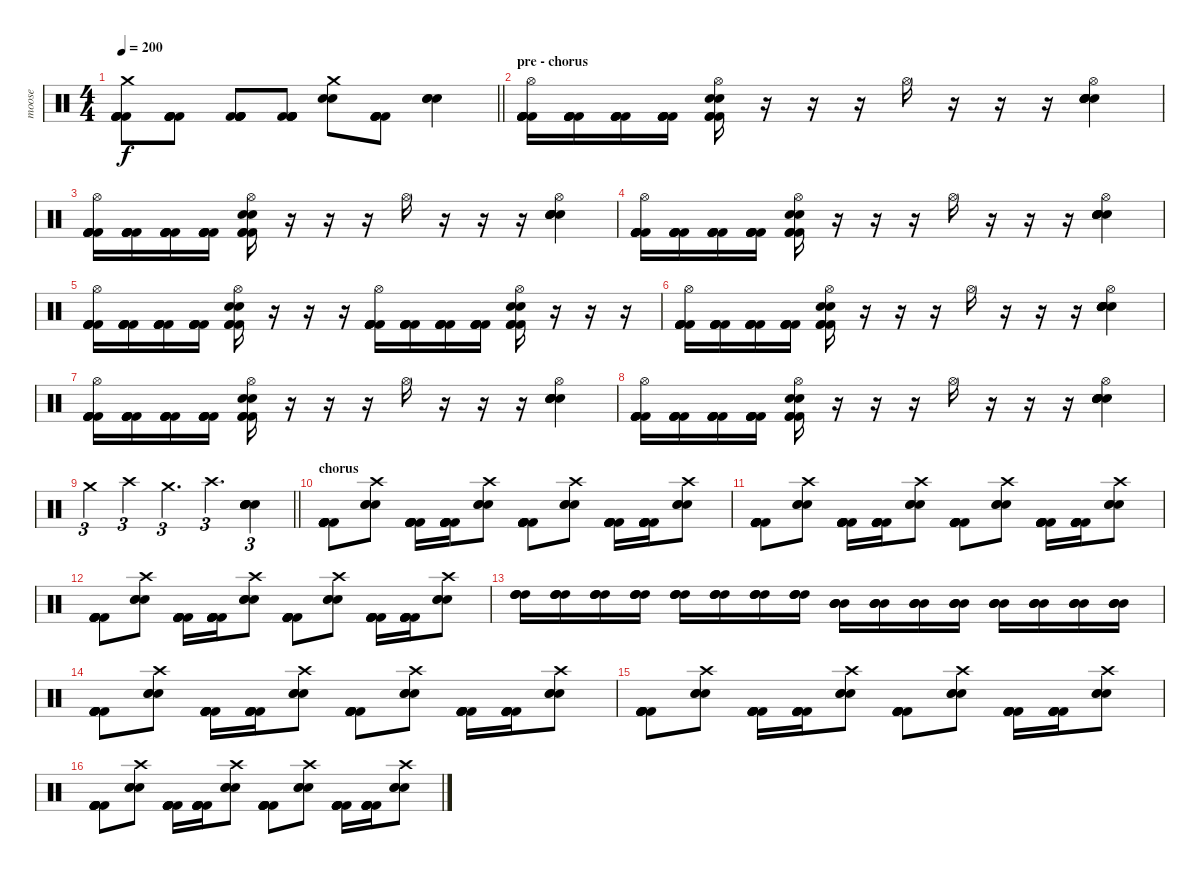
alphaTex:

\track ("moose" "moose") {instrument percussion}
\staff {score}
\articulation defaults
\ts (4 4)
\tempo 200
\clef neutral
\barLineRight lightlight
\ks c
("Kick (hit) 2" "Kick (hit) 2" "Kick (hit) 2" "Kick (hit) 2" "Kick (hit) 2" "Crash medium (hit)").8{dy f} ("Kick (hit) 2" "Kick (hit) 2" "Kick (hit) 2" "Kick (hit) 2" "Kick (hit) 2").8 ("Kick (hit) 2" "Kick (hit) 2" "Kick (hit) 2" "Kick (hit) 2" "Kick (hit) 2").8 ("Kick (hit) 2" "Kick (hit) 2" "Kick (hit) 2" "Kick (hit) 2" "Kick (hit) 2").8 ("Electric Snare (hit)" "Electric Snare (hit)" "Crash medium (hit)").8 ("Kick (hit) 2" "Kick (hit) 2" "Kick (hit) 2" "Kick (hit) 2" "Kick (hit) 2").8 ("Electric Snare (hit)" "Electric Snare (hit)" "Electric Snare (hit)").4 |
\section ("" "pre - chorus")
("Kick (hit) 2" "Kick (hit) 2" "Kick (hit) 2" "Kick (hit) 2" "Kick (hit) 2" "Hi-Hat (open)").16 ("Kick (hit) 2" "Kick (hit) 2" "Kick (hit) 2" "Kick (hit) 2" "Kick (hit) 2").16 ("Kick (hit) 2" "Kick (hit) 2" "Kick (hit) 2" "Kick (hit) 2" "Kick (hit) 2").16 ("Kick (hit) 2" "Kick (hit) 2" "Kick (hit) 2" "Kick (hit) 2" "Kick (hit) 2").16 ("Kick (hit) 2" "Kick (hit) 2" "Kick (hit) 2" "Electric Snare (hit)" "Electric Snare (hit)" "Hi-Hat (open)").16 r.16 r.16 r.16 "Hi-Hat (open)".16 r.16 r.16 r.16 ("Electric Snare (hit)" "Electric Snare (hit)" "Electric Snare (hit)" "Electric Snare (hit)" "Electric Snare (hit)" "Hi-Hat (open)").4 |
("Kick (hit) 2" "Kick (hit) 2" "Kick (hit) 2" "Kick (hit) 2" "Kick (hit) 2" "Hi-Hat (open)").16 ("Kick (hit) 2" "Kick (hit) 2" "Kick (hit) 2" "Kick (hit) 2" "Kick (hit) 2").16 ("Kick (hit) 2" "Kick (hit) 2" "Kick (hit) 2" "Kick (hit) 2" "Kick (hit) 2").16 ("Kick (hit) 2" "Kick (hit) 2" "Kick (hit) 2" "Kick (hit) 2" "Kick (hit) 2").16 ("Kick (hit) 2" "Kick (hit) 2" "Kick (hit) 2" "Electric Snare (hit)" "Electric Snare (hit)" "Hi-Hat (open)").16 r.16 r.16 r.16 "Hi-Hat (open)".16 r.16 r.16 r.16 ("Electric Snare (hit)" "Electric Snare (hit)" "Electric Snare (hit)" "Electric Snare (hit)" "Electric Snare (hit)" "Hi-Hat (open)").4 |
("Kick (hit) 2" "Kick (hit) 2" "Kick (hit) 2" "Kick (hit) 2" "Kick (hit) 2" "Hi-Hat (open)").16 ("Kick (hit) 2" "Kick (hit) 2" "Kick (hit) 2" "Kick (hit) 2" "Kick (hit) 2").16 ("Kick (hit) 2" "Kick (hit) 2" "Kick (hit) 2" "Kick (hit) 2" "Kick (hit) 2").16 ("Kick (hit) 2" "Kick (hit) 2" "Kick (hit) 2" "Kick (hit) 2" "Kick (hit) 2").16 ("Kick (hit) 2" "Kick (hit) 2" "Kick (hit) 2" "Electric Snare (hit)" "Electric Snare (hit)" "Hi-Hat (open)").16 r.16 r.16 r.16 "Hi-Hat (open)".16 r.16 r.16 r.16 ("Electric Snare (hit)" "Electric Snare (hit)" "Electric Snare (hit)" "Electric Snare (hit)" "Electric Snare (hit)" "Hi-Hat (open)").4 |
("Kick (hit) 2" "Kick (hit) 2" "Kick (hit) 2" "Kick (hit) 2" "Kick (hit) 2" "Hi-Hat (open)").16 ("Kick (hit) 2" "Kick (hit) 2" "Kick (hit) 2" "Kick (hit) 2" "Kick (hit) 2").16 ("Kick (hit) 2" "Kick (hit) 2" "Kick (hit) 2" "Kick (hit) 2" "Kick (hit) 2").16 ("Kick (hit) 2" "Kick (hit) 2" "Kick (hit) 2" "Kick (hit) 2" "Kick (hit) 2").16 ("Kick (hit) 2" "Kick (hit) 2" "Kick (hit) 2" "Electric Snare (hit)" "Electric Snare (hit)" "Hi-Hat (open)").16 r.16 r.16 r.16 ("Kick (hit) 2" "Kick (hit) 2" "Kick (hit) 2" "Kick (hit) 2" "Kick (hit) 2" "Hi-Hat (open)").16 ("Kick (hit) 2" "Kick (hit) 2" "Kick (hit) 2" "Kick (hit) 2" "Kick (hit) 2").16 ("Kick (hit) 2" "Kick (hit) 2" "Kick (hit) 2" "Kick (hit) 2" "Kick (hit) 2").16 ("Kick (hit) 2" "Kick (hit) 2" "Kick (hit) 2" "Kick (hit) 2" "Kick (hit) 2").16 ("Kick (hit) 2" "Kick (hit) 2" "Kick (hit) 2" "Electric Snare (hit)" "Electric Snare (hit)" "Hi-Hat (open)").16 r.16 r.16 r.16 |
("Kick (hit) 2" "Kick (hit) 2" "Kick (hit) 2" "Kick (hit) 2" "Kick (hit) 2" "Hi-Hat (open)").16 ("Kick (hit) 2" "Kick (hit) 2" "Kick (hit) 2" "Kick (hit) 2" "Kick (hit) 2").16 ("Kick (hit) 2" "Kick (hit) 2" "Kick (hit) 2" "Kick (hit) 2" "Kick (hit) 2").16 ("Kick (hit) 2" "Kick (hit) 2" "Kick (hit) 2" "Kick (hit) 2" "Kick (hit) 2").16 ("Kick (hit) 2" "Kick (hit) 2" "Kick (hit) 2" "Electric Snare (hit)" "Electric Snare (hit)" "Hi-Hat (open)").16 r.16 r.16 r.16 "Hi-Hat (open)".16 r.16 r.16 r.16 ("Electric Snare (hit)" "Electric Snare (hit)" "Electric Snare (hit)" "Electric Snare (hit)" "Electric Snare (hit)" "Hi-Hat (open)").4 |
("Kick (hit) 2" "Kick (hit) 2" "Kick (hit) 2" "Kick (hit) 2" "Kick (hit) 2" "Hi-Hat (open)").16 ("Kick (hit) 2" "Kick (hit) 2" "Kick (hit) 2" "Kick (hit) 2" "Kick (hit) 2").16 ("Kick (hit) 2" "Kick (hit) 2" "Kick (hit) 2" "Kick (hit) 2" "Kick (hit) 2").16 ("Kick (hit) 2" "Kick (hit) 2" "Kick (hit) 2" "Kick (hit) 2" "Kick (hit) 2").16 ("Kick (hit) 2" "Kick (hit) 2" "Kick (hit) 2" "Electric Snare (hit)" "Electric Snare (hit)" "Hi-Hat (open)").16 r.16 r.16 r.16 "Hi-Hat (open)".16 r.16 r.16 r.16 ("Electric Snare (hit)" "Electric Snare (hit)" "Electric Snare (hit)" "Electric Snare (hit)" "Electric Snare (hit)" "Hi-Hat (open)").4 |
("Kick (hit) 2" "Kick (hit) 2" "Kick (hit) 2" "Kick (hit) 2" "Kick (hit) 2" "Hi-Hat (open)").16 ("Kick (hit) 2" "Kick (hit) 2" "Kick (hit) 2" "Kick (hit) 2" "Kick (hit) 2").16 ("Kick (hit) 2" "Kick (hit) 2" "Kick (hit) 2" "Kick (hit) 2" "Kick (hit) 2").16 ("Kick (hit) 2" "Kick (hit) 2" "Kick (hit) 2" "Kick (hit) 2" "Kick (hit) 2").16 ("Kick (hit) 2" "Kick (hit) 2" "Kick (hit) 2" "Electric Snare (hit)" "Electric Snare (hit)" "Hi-Hat (open)").16 r.16 r.16 r.16 "Hi-Hat (open)".16 r.16 r.16 r.16 ("Electric Snare (hit)" "Electric Snare (hit)" "Electric Snare (hit)" "Electric Snare (hit)" "Electric Snare (hit)" "Hi-Hat (open)").4 |
\barLineRight lightlight "Crash medium (hit)".4{tu (3 2)} "Crash high (hit)".4{tu (3 2)} "Crash medium (hit)".4{d tu (3 2)} "Crash high (hit)".4{d tu (3 2)}
("Electric Snare (hit)" "Electric Snare (hit)" "Electric Snare (hit)" "Electric Snare (hit)" "Electric Snare (hit)").4{tu (3 2)} |
\section ("" "chorus")
("Kick (hit) 2" "Kick (hit) 2" "Kick (hit) 2" "Kick (hit) 2" "Kick (hit) 2" "Kick (hit) 2").8 ("Electric Snare (hit)" "Electric Snare (hit)" "Electric Snare (hit)" "Crash high (hit)").8 ("Kick (hit) 2" "Kick (hit) 2" "Kick (hit) 2" "Kick (hit) 2" "Kick (hit) 2" "Kick (hit) 2").16 ("Kick (hit) 2" "Kick (hit) 2" "Kick (hit) 2" "Kick (hit) 2" "Kick (hit) 2" "Kick (hit) 2").16 ("Electric Snare (hit)" "Electric Snare (hit)" "Electric Snare (hit)" "Crash high (hit)").8 ("Kick (hit) 2" "Kick (hit) 2" "Kick (hit) 2" "Kick (hit) 2" "Kick (hit) 2" "Kick (hit) 2").8 ("Electric Snare (hit)" "Electric Snare (hit)" "Electric Snare (hit)" "Crash high (hit)").8 ("Kick (hit) 2" "Kick (hit) 2" "Kick (hit) 2" "Kick (hit) 2" "Kick (hit) 2" "Kick (hit) 2").16 ("Kick (hit) 2" "Kick (hit) 2" "Kick (hit) 2" "Kick (hit) 2" "Kick (hit) 2" "Kick (hit) 2").16 ("Electric Snare (hit)" "Electric Snare (hit)" "Electric Snare (hit)" "Crash high (hit)").8 |
("Kick (hit) 2" "Kick (hit) 2" "Kick (hit) 2" "Kick (hit) 2" "Kick (hit) 2" "Kick (hit) 2").8 ("Electric Snare (hit)" "Electric Snare (hit)" "Electric Snare (hit)" "Crash high (hit)").8 ("Kick (hit) 2" "Kick (hit) 2" "Kick (hit) 2" "Kick (hit) 2" "Kick (hit) 2" "Kick (hit) 2").16 ("Kick (hit) 2" "Kick (hit) 2" "Kick (hit) 2" "Kick (hit) 2" "Kick (hit) 2" "Kick (hit) 2").16 ("Electric Snare (hit)" "Electric Snare (hit)" "Electric Snare (hit)" "Crash high (hit)").8 ("Kick (hit) 2" "Kick (hit) 2" "Kick (hit) 2" "Kick (hit) 2" "Kick (hit) 2" "Kick (hit) 2").8 ("Electric Snare (hit)" "Electric Snare (hit)" "Electric Snare (hit)" "Crash high (hit)").8 ("Kick (hit) 2" "Kick (hit) 2" "Kick (hit) 2" "Kick (hit) 2" "Kick (hit) 2" "Kick (hit) 2").16 ("Kick (hit) 2" "Kick (hit) 2" "Kick (hit) 2" "Kick (hit) 2" "Kick (hit) 2" "Kick (hit) 2").16 ("Electric Snare (hit)" "Electric Snare (hit)" "Electric Snare (hit)" "Crash high (hit)").8 |
("Kick (hit) 2" "Kick (hit) 2" "Kick (hit) 2" "Kick (hit) 2" "Kick (hit) 2" "Kick (hit) 2").8 ("Electric Snare (hit)" "Electric Snare (hit)" "Electric Snare (hit)" "Crash high (hit)").8 ("Kick (hit) 2" "Kick (hit) 2" "Kick (hit) 2" "Kick (hit) 2" "Kick (hit) 2" "Kick (hit) 2").16 ("Kick (hit) 2" "Kick (hit) 2" "Kick (hit) 2" "Kick (hit) 2" "Kick (hit) 2" "Kick (hit) 2").16 ("Electric Snare (hit)" "Electric Snare (hit)" "Electric Snare (hit)" "Crash high (hit)").8 ("Kick (hit) 2" "Kick (hit) 2" "Kick (hit) 2" "Kick (hit) 2" "Kick (hit) 2" "Kick (hit) 2").8 ("Electric Snare (hit)" "Electric Snare (hit)" "Electric Snare (hit)" "Crash high (hit)").8 ("Kick (hit) 2" "Kick (hit) 2" "Kick (hit) 2" "Kick (hit) 2" "Kick (hit) 2" "Kick (hit) 2").16 ("Kick (hit) 2" "Kick (hit) 2" "Kick (hit) 2" "Kick (hit) 2" "Kick (hit) 2" "Kick (hit) 2").16 ("Electric Snare (hit)" "Electric Snare (hit)" "Electric Snare (hit)" "Crash high (hit)").8 |
("High Tom (hit)" "High Tom (hit)" "High Tom (hit)" "High Tom (hit)").16 ("High Tom (hit)" "High Tom (hit)" "High Tom (hit)" "High Tom (hit)").16 ("High Tom (hit)" "High Tom (hit)" "High Tom (hit)" "High Tom (hit)").16 ("High Tom (hit)" "High Tom (hit)" "High Tom (hit)" "High Tom (hit)").16 ("High Tom (hit)" "High Tom (hit)" "High Tom (hit)" "High Tom (hit)").16 ("High Tom (hit)" "High Tom (hit)" "High Tom (hit)" "High Tom (hit)").16 ("High Tom (hit)" "High Tom (hit)" "High Tom (hit)" "High Tom (hit)").16 ("High Tom (hit)" "High Tom (hit)" "High Tom (hit)" "High Tom (hit)").16 ("Mid Tom (hit)" "Mid Tom (hit)" "Mid Tom (hit)" "Mid Tom (hit)").16 ("Mid Tom (hit)" "Mid Tom (hit)" "Mid Tom (hit)" "Mid Tom (hit)").16 ("Mid Tom (hit)" "Mid Tom (hit)" "Mid Tom (hit)" "Mid Tom (hit)").16 ("Mid Tom (hit)" "Mid Tom (hit)" "Mid Tom (hit)" "Mid Tom (hit)").16 ("Mid Tom (hit)" "Mid Tom (hit)" "Mid Tom (hit)" "Mid Tom (hit)").16 ("Mid Tom (hit)" "Mid Tom (hit)" "Mid Tom (hit)" "Mid Tom (hit)").16 ("Mid Tom (hit)" "Mid Tom (hit)" "Mid Tom (hit)" "Mid Tom (hit)").16 ("Mid Tom (hit)" "Mid Tom (hit)" "Mid Tom (hit)" "Mid Tom (hit)").16 |
("Kick (hit) 2" "Kick (hit) 2" "Kick (hit) 2" "Kick (hit) 2" "Kick (hit) 2" "Kick (hit) 2").8 ("Electric Snare (hit)" "Electric Snare (hit)" "Electric Snare (hit)" "Crash high (hit)").8 ("Kick (hit) 2" "Kick (hit) 2" "Kick (hit) 2" "Kick (hit) 2" "Kick (hit) 2" "Kick (hit) 2").16 ("Kick (hit) 2" "Kick (hit) 2" "Kick (hit) 2" "Kick (hit) 2" "Kick (hit) 2" "Kick (hit) 2").16 ("Electric Snare (hit)" "Electric Snare (hit)" "Electric Snare (hit)" "Crash high (hit)").8 ("Kick (hit) 2" "Kick (hit) 2" "Kick (hit) 2" "Kick (hit) 2" "Kick (hit) 2" "Kick (hit) 2").8 ("Electric Snare (hit)" "Electric Snare (hit)" "Electric Snare (hit)" "Crash high (hit)").8 ("Kick (hit) 2" "Kick (hit) 2" "Kick (hit) 2" "Kick (hit) 2" "Kick (hit) 2" "Kick (hit) 2").16 ("Kick (hit) 2" "Kick (hit) 2" "Kick (hit) 2" "Kick (hit) 2" "Kick (hit) 2" "Kick (hit) 2").16 ("Electric Snare (hit)" "Electric Snare (hit)" "Electric Snare (hit)" "Crash high (hit)").8 |
("Kick (hit) 2" "Kick (hit) 2" "Kick (hit) 2" "Kick (hit) 2" "Kick (hit) 2" "Kick (hit) 2").8 ("Electric Snare (hit)" "Electric Snare (hit)" "Electric Snare (hit)" "Crash high (hit)").8 ("Kick (hit) 2" "Kick (hit) 2" "Kick (hit) 2" "Kick (hit) 2" "Kick (hit) 2" "Kick (hit) 2").16 ("Kick (hit) 2" "Kick (hit) 2" "Kick (hit) 2" "Kick (hit) 2" "Kick (hit) 2" "Kick (hit) 2").16 ("Electric Snare (hit)" "Electric Snare (hit)" "Electric Snare (hit)" "Crash high (hit)").8 ("Kick (hit) 2" "Kick (hit) 2" "Kick (hit) 2" "Kick (hit) 2" "Kick (hit) 2" "Kick (hit) 2").8 ("Electric Snare (hit)" "Electric Snare (hit)" "Electric Snare (hit)" "Crash high (hit)").8 ("Kick (hit) 2" "Kick (hit) 2" "Kick (hit) 2" "Kick (hit) 2" "Kick (hit) 2" "Kick (hit) 2").16 ("Kick (hit) 2" "Kick (hit) 2" "Kick (hit) 2" "Kick (hit) 2" "Kick (hit) 2" "Kick (hit) 2").16 ("Electric Snare (hit)" "Electric Snare (hit)" "Electric Snare (hit)" "Crash high (hit)").8 |
("Kick (hit) 2" "Kick (hit) 2" "Kick (hit) 2" "Kick (hit) 2" "Kick (hit) 2" "Kick (hit) 2").8 ("Electric Snare (hit)" "Electric Snare (hit)" "Electric Snare (hit)" "Crash high (hit)").8 ("Kick (hit) 2" "Kick (hit) 2" "Kick (hit) 2" "Kick (hit) 2" "Kick (hit) 2" "Kick (hit) 2").16 ("Kick (hit) 2" "Kick (hit) 2" "Kick (hit) 2" "Kick (hit) 2" "Kick (hit) 2" "Kick (hit) 2").16 ("Electric Snare (hit)" "Electric Snare (hit)" "Electric Snare (hit)" "Crash high (hit)").8 ("Kick (hit) 2" "Kick (hit) 2" "Kick (hit) 2" "Kick (hit) 2" "Kick (hit) 2" "Kick (hit) 2").8 ("Electric Snare (hit)" "Electric Snare (hit)" "Electric Snare (hit)" "Crash high (hit)").8 ("Kick (hit) 2" "Kick (hit) 2" "Kick (hit) 2" "Kick (hit) 2" "Kick (hit) 2" "Kick (hit) 2").16 ("Kick (hit) 2" "Kick (hit) 2" "Kick (hit) 2" "Kick (hit) 2" "Kick (hit) 2" "Kick (hit) 2").16 ("Electric Snare (hit)" "Electric Snare (hit)" "Electric Snare (hit)" "Crash high (hit)").8
